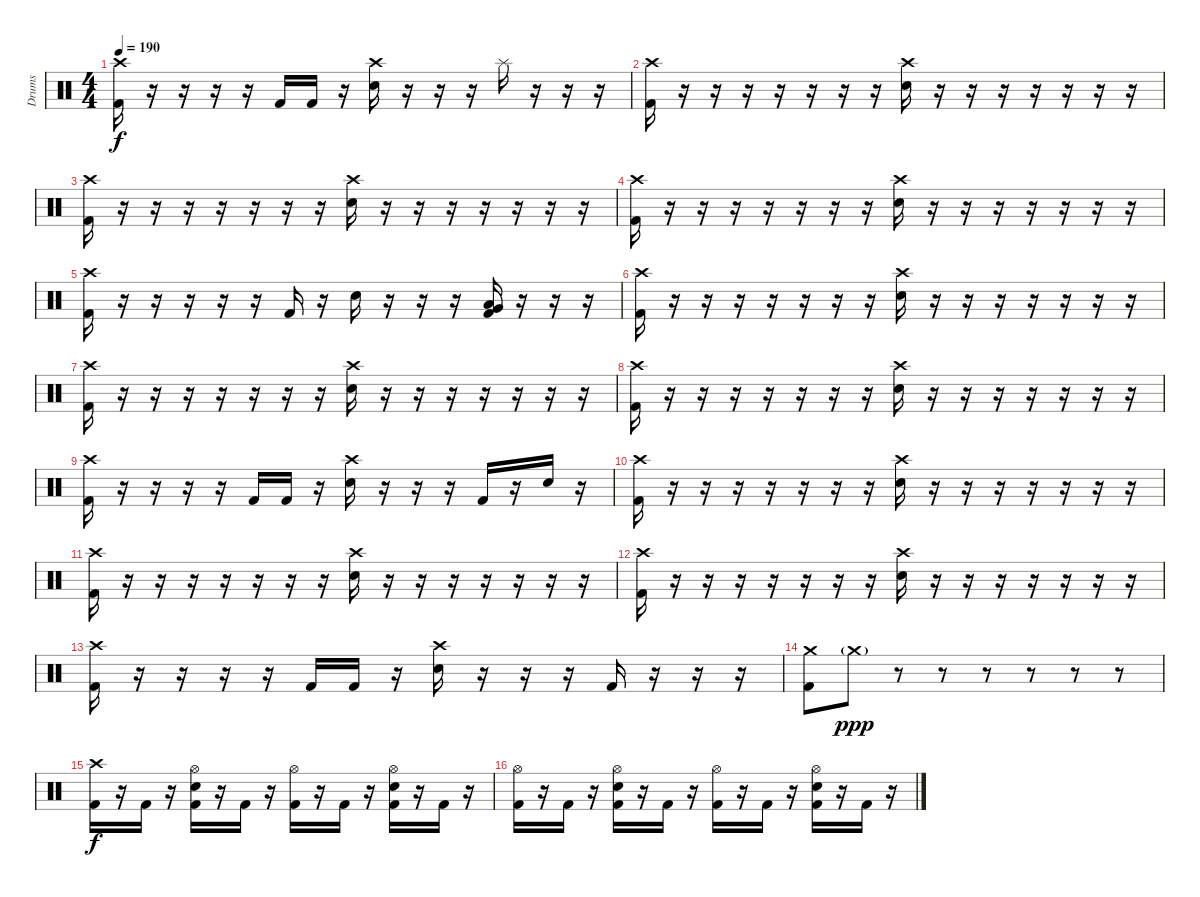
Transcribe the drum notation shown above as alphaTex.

\track ("Drums" "Drums") {instrument percussion}
\staff {score}
\articulation defaults
\ts (4 4)
\tempo 190
\clef neutral
\ks c
("Crash high (hit)" "Kick (hit) 2").16{dy f} r.16 r.16 r.16 r.16 "Kick (hit) 2".16 "Kick (hit) 2".16 r.16 ("Crash high (hit)" "Electric Snare (hit)").16 r.16 r.16 r.16 "Splash (hit)".16 r.16 r.16 r.16 |
("Crash high (hit)" "Kick (hit) 2").16 r.16 r.16 r.16 r.16 r.16 r.16 r.16 ("Crash high (hit)" "Electric Snare (hit)").16 r.16 r.16 r.16 r.16 r.16 r.16 r.16 |
("Crash high (hit)" "Kick (hit) 2").16 r.16 r.16 r.16 r.16 r.16 r.16 r.16 ("Crash high (hit)" "Electric Snare (hit)").16 r.16 r.16 r.16 r.16 r.16 r.16 r.16 |
("Crash high (hit)" "Kick (hit) 2").16 r.16 r.16 r.16 r.16 r.16 r.16 r.16 ("Crash high (hit)" "Electric Snare (hit)").16 r.16 r.16 r.16 r.16 r.16 r.16 r.16 |
("Crash high (hit)" "Kick (hit) 2").16 r.16 r.16 r.16 r.16 r.16 "Kick (hit) 2".16 r.16 "Electric Snare (hit)".16 r.16 r.16 r.16 ("Very Low Tom (hit)" "Low Floor Tom (hit)" "Kick (hit) 2").16 r.16 r.16 r.16 |
("Crash high (hit)" "Kick (hit) 2").16 r.16 r.16 r.16 r.16 r.16 r.16 r.16 ("Crash high (hit)" "Electric Snare (hit)").16 r.16 r.16 r.16 r.16 r.16 r.16 r.16 |
("Crash high (hit)" "Kick (hit) 2").16 r.16 r.16 r.16 r.16 r.16 r.16 r.16 ("Crash high (hit)" "Electric Snare (hit)").16 r.16 r.16 r.16 r.16 r.16 r.16 r.16 |
("Crash high (hit)" "Kick (hit) 2").16 r.16 r.16 r.16 r.16 r.16 r.16 r.16 ("Crash high (hit)" "Electric Snare (hit)").16 r.16 r.16 r.16 r.16 r.16 r.16 r.16 |
("Crash high (hit)" "Kick (hit) 2").16 r.16 r.16 r.16 r.16 "Kick (hit) 2".16 "Kick (hit) 2".16 r.16 ("Crash high (hit)" "Electric Snare (hit)").16 r.16 r.16 r.16 "Kick (hit) 2".16 r.16 "Electric Snare (hit)".16 r.16 |
("Crash high (hit)" "Kick (hit) 2").16 r.16 r.16 r.16 r.16 r.16 r.16 r.16 ("Crash high (hit)" "Electric Snare (hit)").16 r.16 r.16 r.16 r.16 r.16 r.16 r.16 |
("Crash high (hit)" "Kick (hit) 2").16 r.16 r.16 r.16 r.16 r.16 r.16 r.16 ("Crash high (hit)" "Electric Snare (hit)").16 r.16 r.16 r.16 r.16 r.16 r.16 r.16 |
("Crash high (hit)" "Kick (hit) 2").16 r.16 r.16 r.16 r.16 r.16 r.16 r.16 ("Crash high (hit)" "Electric Snare (hit)").16 r.16 r.16 r.16 r.16 r.16 r.16 r.16 |
("Crash high (hit)" "Kick (hit) 2").16 r.16 r.16 r.16 r.16 "Kick (hit) 2".16 "Kick (hit) 2".16 r.16 ("Crash high (hit)" "Electric Snare (hit)").16 r.16 r.16 r.16 "Kick (hit) 2".16 r.16 r.16 r.16 |
("Crash medium (hit)" "Kick (hit) 2").8 "Crash medium (hit)"{g}.8{dy ppp} r.8 r.8 r.8 r.8 r.8 r.8 |
("Crash high (hit)" "Kick (hit) 2").16{dy f} r.16 "Kick (hit) 2".16 r.16 ("Hi-Hat (open)" "Electric Snare (hit)" "Kick (hit) 2").16 r.16 "Kick (hit) 2".16 r.16 ("Hi-Hat (open)" "Kick (hit) 2").16 r.16 "Kick (hit) 2".16 r.16 ("Hi-Hat (open)" "Electric Snare (hit)" "Kick (hit) 2").16 r.16 "Kick (hit) 2".16 r.16 |
("Hi-Hat (open)" "Kick (hit) 2").16 r.16 "Kick (hit) 2".16 r.16 ("Hi-Hat (open)" "Electric Snare (hit)" "Kick (hit) 2").16 r.16 "Kick (hit) 2".16 r.16 ("Hi-Hat (open)" "Kick (hit) 2").16 r.16 "Kick (hit) 2".16 r.16 ("Hi-Hat (open)" "Electric Snare (hit)" "Kick (hit) 2").16 r.16 "Kick (hit) 2".16 r.16
